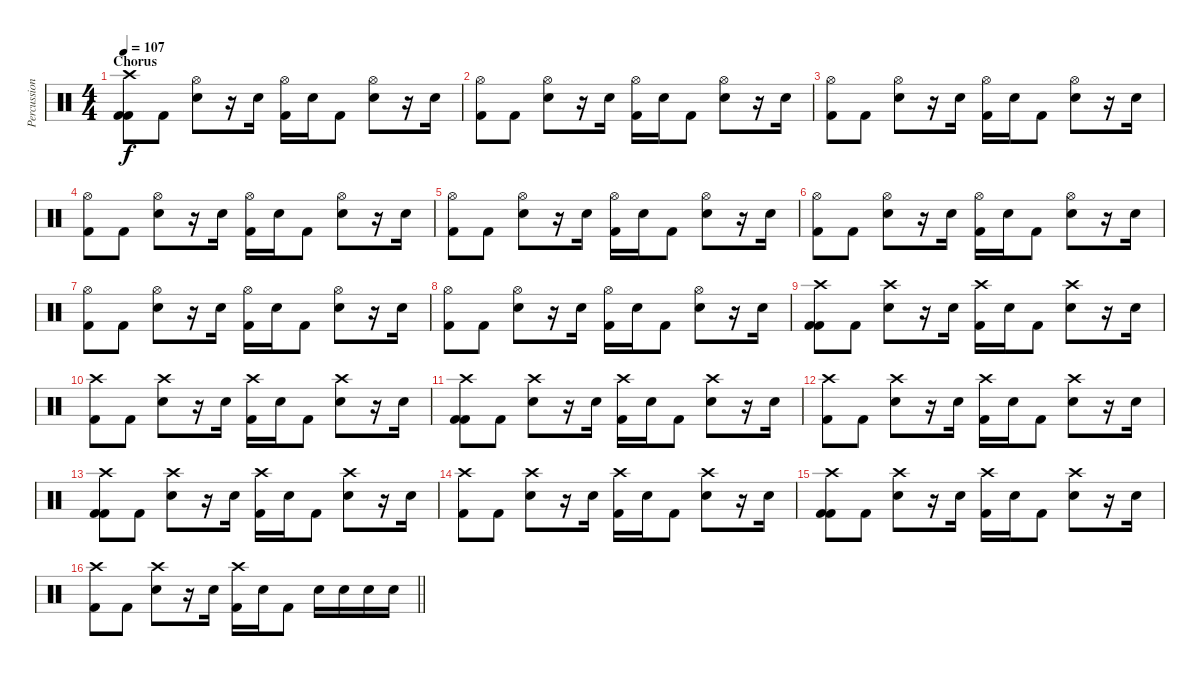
\track ("Percussion" "Percussion") {instrument percussion}
\staff {score}
\articulation defaults
\ts (4 4)
\section ("" "Chorus")
\tempo 107
\clef neutral
\ks c
("Kick (hit) 2" "Crash high (hit)" "Kick (hit) 2").8{dy f} "Kick (hit) 2".8 ("Hi-Hat (open)" "Snare (hit) 2").8 r.16 "Snare (hit) 2".16 ("Hi-Hat (open)" "Kick (hit) 2").16 "Snare (hit) 2".16 "Kick (hit) 2".8 ("Hi-Hat (open)" "Snare (hit) 2").8 r.16 "Snare (hit) 2".16 |
("Hi-Hat (open)" "Kick (hit) 2").8 "Kick (hit) 2".8 ("Hi-Hat (open)" "Snare (hit) 2").8 r.16 "Snare (hit) 2".16 ("Hi-Hat (open)" "Kick (hit) 2").16 "Snare (hit) 2".16 "Kick (hit) 2".8 ("Hi-Hat (open)" "Snare (hit) 2").8 r.16 "Snare (hit) 2".16 |
("Hi-Hat (open)" "Kick (hit) 2").8 "Kick (hit) 2".8 ("Hi-Hat (open)" "Snare (hit) 2").8 r.16 "Snare (hit) 2".16 ("Hi-Hat (open)" "Kick (hit) 2").16 "Snare (hit) 2".16 "Kick (hit) 2".8 ("Hi-Hat (open)" "Snare (hit) 2").8 r.16 "Snare (hit) 2".16 |
("Hi-Hat (open)" "Kick (hit) 2").8 "Kick (hit) 2".8 ("Hi-Hat (open)" "Snare (hit) 2").8 r.16 "Snare (hit) 2".16 ("Hi-Hat (open)" "Kick (hit) 2").16 "Snare (hit) 2".16 "Kick (hit) 2".8 ("Hi-Hat (open)" "Snare (hit) 2").8 r.16 "Snare (hit) 2".16 |
("Hi-Hat (open)" "Kick (hit) 2").8 "Kick (hit) 2".8 ("Hi-Hat (open)" "Snare (hit) 2").8 r.16 "Snare (hit) 2".16 ("Hi-Hat (open)" "Kick (hit) 2").16 "Snare (hit) 2".16 "Kick (hit) 2".8 ("Hi-Hat (open)" "Snare (hit) 2").8 r.16 "Snare (hit) 2".16 |
("Hi-Hat (open)" "Kick (hit) 2").8 "Kick (hit) 2".8 ("Hi-Hat (open)" "Snare (hit) 2").8 r.16 "Snare (hit) 2".16 ("Hi-Hat (open)" "Kick (hit) 2").16 "Snare (hit) 2".16 "Kick (hit) 2".8 ("Hi-Hat (open)" "Snare (hit) 2").8 r.16 "Snare (hit) 2".16 |
("Hi-Hat (open)" "Kick (hit) 2").8 "Kick (hit) 2".8 ("Hi-Hat (open)" "Snare (hit) 2").8 r.16 "Snare (hit) 2".16 ("Hi-Hat (open)" "Kick (hit) 2").16 "Snare (hit) 2".16 "Kick (hit) 2".8 ("Hi-Hat (open)" "Snare (hit) 2").8 r.16 "Snare (hit) 2".16 |
("Hi-Hat (open)" "Kick (hit) 2").8 "Kick (hit) 2".8 ("Hi-Hat (open)" "Snare (hit) 2").8 r.16 "Snare (hit) 2".16 ("Hi-Hat (open)" "Kick (hit) 2").16 "Snare (hit) 2".16 "Kick (hit) 2".8 ("Hi-Hat (open)" "Snare (hit) 2").8 r.16 "Snare (hit) 2".16 |
("Kick (hit) 2" "Crash high (hit)" "Kick (hit) 2").8 "Kick (hit) 2".8 ("Crash high (hit)" "Snare (hit) 2").8 r.16 "Snare (hit) 2".16 ("Crash high (hit)" "Kick (hit) 2").16 "Snare (hit) 2".16 "Kick (hit) 2".8 ("Crash high (hit)" "Snare (hit) 2").8 r.16 "Snare (hit) 2".16 |
("Crash high (hit)" "Kick (hit) 2").8 "Kick (hit) 2".8 ("Crash high (hit)" "Snare (hit) 2").8 r.16 "Snare (hit) 2".16 ("Crash high (hit)" "Kick (hit) 2").16 "Snare (hit) 2".16 "Kick (hit) 2".8 ("Crash high (hit)" "Snare (hit) 2").8 r.16 "Snare (hit) 2".16 |
("Kick (hit) 2" "Crash high (hit)" "Kick (hit) 2").8 "Kick (hit) 2".8 ("Crash high (hit)" "Snare (hit) 2").8 r.16 "Snare (hit) 2".16 ("Crash high (hit)" "Kick (hit) 2").16 "Snare (hit) 2".16 "Kick (hit) 2".8 ("Crash high (hit)" "Snare (hit) 2").8 r.16 "Snare (hit) 2".16 |
("Crash high (hit)" "Kick (hit) 2").8 "Kick (hit) 2".8 ("Crash high (hit)" "Snare (hit) 2").8 r.16 "Snare (hit) 2".16 ("Crash high (hit)" "Kick (hit) 2").16 "Snare (hit) 2".16 "Kick (hit) 2".8 ("Crash high (hit)" "Snare (hit) 2").8 r.16 "Snare (hit) 2".16 |
("Kick (hit) 2" "Crash high (hit)" "Kick (hit) 2").8 "Kick (hit) 2".8 ("Crash high (hit)" "Snare (hit) 2").8 r.16 "Snare (hit) 2".16 ("Crash high (hit)" "Kick (hit) 2").16 "Snare (hit) 2".16 "Kick (hit) 2".8 ("Crash high (hit)" "Snare (hit) 2").8 r.16 "Snare (hit) 2".16 |
("Crash high (hit)" "Kick (hit) 2").8 "Kick (hit) 2".8 ("Crash high (hit)" "Snare (hit) 2").8 r.16 "Snare (hit) 2".16 ("Crash high (hit)" "Kick (hit) 2").16 "Snare (hit) 2".16 "Kick (hit) 2".8 ("Crash high (hit)" "Snare (hit) 2").8 r.16 "Snare (hit) 2".16 |
("Kick (hit) 2" "Crash high (hit)" "Kick (hit) 2").8 "Kick (hit) 2".8 ("Crash high (hit)" "Snare (hit) 2").8 r.16 "Snare (hit) 2".16 ("Crash high (hit)" "Kick (hit) 2").16 "Snare (hit) 2".16 "Kick (hit) 2".8 ("Crash high (hit)" "Snare (hit) 2").8 r.16 "Snare (hit) 2".16 |
\barLineRight lightlight
("Crash high (hit)" "Kick (hit) 2").8 "Kick (hit) 2".8 ("Crash high (hit)" "Snare (hit) 2").8 r.16 "Snare (hit) 2".16 ("Crash high (hit)" "Kick (hit) 2").16 "Snare (hit) 2".16 "Kick (hit) 2".8 "Snare (hit) 2".16 "Snare (hit) 2".16 "Snare (hit) 2".16 "Snare (hit) 2".16
